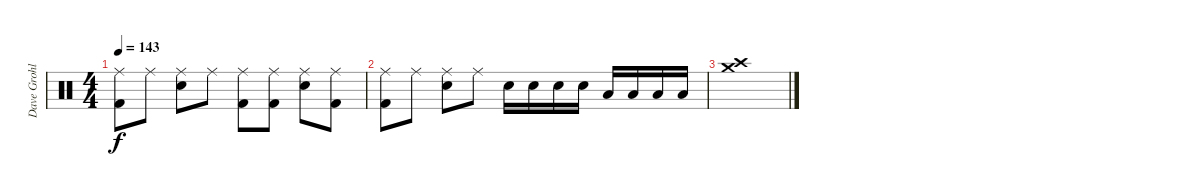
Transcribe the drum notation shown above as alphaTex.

\track ("Dave Grohl" "Dave Grohl") {instrument percussion}
\staff {score}
\articulation defaults
\ts (4 4)
\tempo 143
\clef neutral
\ks c
("Ride (middle)" "Kick (hit) 2").8{dy f} "Ride (middle)".8 ("Ride (middle)" "Snare (hit) 2").8 "Ride (middle)".8 ("Ride (middle)" "Kick (hit) 2").8 ("Ride (middle)" "Kick (hit) 2").8 ("Ride (middle)" "Snare (hit) 2").8 ("Ride (middle)" "Kick (hit) 2").8 |
("Ride (middle)" "Kick (hit) 2").8 "Ride (middle)".8 ("Ride (middle)" "Snare (hit) 2").8 "Ride (middle)".8 "Snare (hit) 2".16 "Snare (hit) 2".16 "Snare (hit) 2".16 "Snare (hit) 2".16 "Low Tom (hit)".16 "Low Tom (hit)".16 "Low Tom (hit)".16 "Low Tom (hit)".16 |
("Crash medium (hit)" "Crash high (hit)").1
